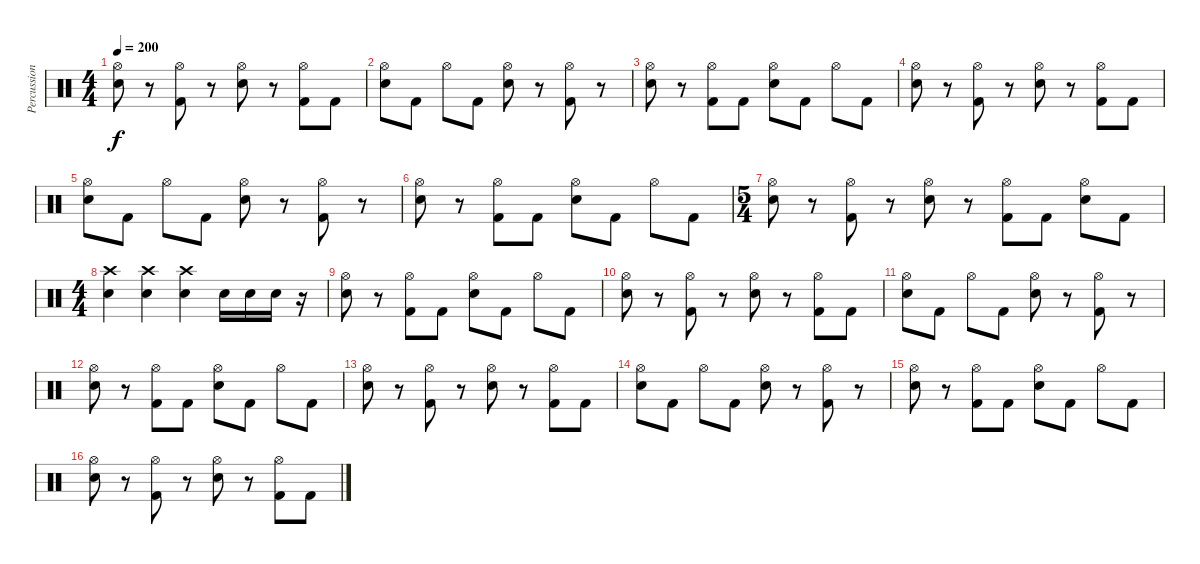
\track ("Percussions" "Percussion") {instrument percussion}
\staff {score}
\articulation defaults
\ts (4 4)
\tempo 200
\clef neutral
\ks c
("Hi-Hat (open)" "Electric Snare (hit)").8{dy f} r.8 ("Hi-Hat (open)" "Kick (hit) 2").8 r.8 ("Hi-Hat (open)" "Electric Snare (hit)").8 r.8 ("Hi-Hat (open)" "Kick (hit) 2").8 "Kick (hit) 2".8 |
("Hi-Hat (open)" "Electric Snare (hit)").8 "Kick (hit) 2".8 "Hi-Hat (open)".8 "Kick (hit) 2".8 ("Hi-Hat (open)" "Electric Snare (hit)").8 r.8 ("Hi-Hat (open)" "Kick (hit) 2").8 r.8 |
("Hi-Hat (open)" "Electric Snare (hit)").8 r.8 ("Hi-Hat (open)" "Kick (hit) 2").8 "Kick (hit) 2".8 ("Hi-Hat (open)" "Electric Snare (hit)").8 "Kick (hit) 2".8 "Hi-Hat (open)".8 "Kick (hit) 2".8 |
("Hi-Hat (open)" "Electric Snare (hit)").8 r.8 ("Hi-Hat (open)" "Kick (hit) 2").8 r.8 ("Hi-Hat (open)" "Electric Snare (hit)").8 r.8 ("Hi-Hat (open)" "Kick (hit) 2").8 "Kick (hit) 2".8 |
("Hi-Hat (open)" "Electric Snare (hit)").8 "Kick (hit) 2".8 "Hi-Hat (open)".8 "Kick (hit) 2".8 ("Hi-Hat (open)" "Electric Snare (hit)").8 r.8 ("Hi-Hat (open)" "Kick (hit) 2").8 r.8 |
("Hi-Hat (open)" "Electric Snare (hit)").8 r.8 ("Hi-Hat (open)" "Kick (hit) 2").8 "Kick (hit) 2".8 ("Hi-Hat (open)" "Electric Snare (hit)").8 "Kick (hit) 2".8 "Hi-Hat (open)".8 "Kick (hit) 2".8 |
\ts (5 4)
("Hi-Hat (open)" "Electric Snare (hit)").8 r.8 ("Hi-Hat (open)" "Kick (hit) 2").8 r.8 ("Hi-Hat (open)" "Electric Snare (hit)").8 r.8 ("Hi-Hat (open)" "Kick (hit) 2").8 "Kick (hit) 2".8 ("Hi-Hat (open)" "Electric Snare (hit)").8 "Kick (hit) 2".8 |
\ts (4 4)
("Crash high (hit)" "Electric Snare (hit)").4 ("Crash high (hit)" "Electric Snare (hit)").4 ("Crash high (hit)" "Electric Snare (hit)").4 "Electric Snare (hit)".16 "Electric Snare (hit)".16 "Electric Snare (hit)".16 r.16 |
("Hi-Hat (open)" "Electric Snare (hit)").8{volume 13} r.8 ("Hi-Hat (open)" "Kick (hit) 2").8 "Kick (hit) 2".8 ("Hi-Hat (open)" "Electric Snare (hit)").8 "Kick (hit) 2".8 "Hi-Hat (open)".8 "Kick (hit) 2".8 |
("Hi-Hat (open)" "Electric Snare (hit)").8 r.8 ("Hi-Hat (open)" "Kick (hit) 2").8 r.8 ("Hi-Hat (open)" "Electric Snare (hit)").8 r.8 ("Hi-Hat (open)" "Kick (hit) 2").8 "Kick (hit) 2".8 |
("Hi-Hat (open)" "Electric Snare (hit)").8 "Kick (hit) 2".8 "Hi-Hat (open)".8 "Kick (hit) 2".8 ("Hi-Hat (open)" "Electric Snare (hit)").8 r.8 ("Hi-Hat (open)" "Kick (hit) 2").8 r.8 |
("Hi-Hat (open)" "Electric Snare (hit)").8 r.8 ("Hi-Hat (open)" "Kick (hit) 2").8 "Kick (hit) 2".8 ("Hi-Hat (open)" "Electric Snare (hit)").8 "Kick (hit) 2".8 "Hi-Hat (open)".8 "Kick (hit) 2".8 |
("Hi-Hat (open)" "Electric Snare (hit)").8 r.8 ("Hi-Hat (open)" "Kick (hit) 2").8 r.8 ("Hi-Hat (open)" "Electric Snare (hit)").8 r.8 ("Hi-Hat (open)" "Kick (hit) 2").8 "Kick (hit) 2".8 |
("Hi-Hat (open)" "Electric Snare (hit)").8 "Kick (hit) 2".8 "Hi-Hat (open)".8 "Kick (hit) 2".8 ("Hi-Hat (open)" "Electric Snare (hit)").8 r.8 ("Hi-Hat (open)" "Kick (hit) 2").8 r.8 |
("Hi-Hat (open)" "Electric Snare (hit)").8 r.8 ("Hi-Hat (open)" "Kick (hit) 2").8 "Kick (hit) 2".8 ("Hi-Hat (open)" "Electric Snare (hit)").8 "Kick (hit) 2".8 "Hi-Hat (open)".8 "Kick (hit) 2".8 |
("Hi-Hat (open)" "Electric Snare (hit)").8 r.8 ("Hi-Hat (open)" "Kick (hit) 2").8 r.8 ("Hi-Hat (open)" "Electric Snare (hit)").8 r.8 ("Hi-Hat (open)" "Kick (hit) 2").8 "Kick (hit) 2".8
